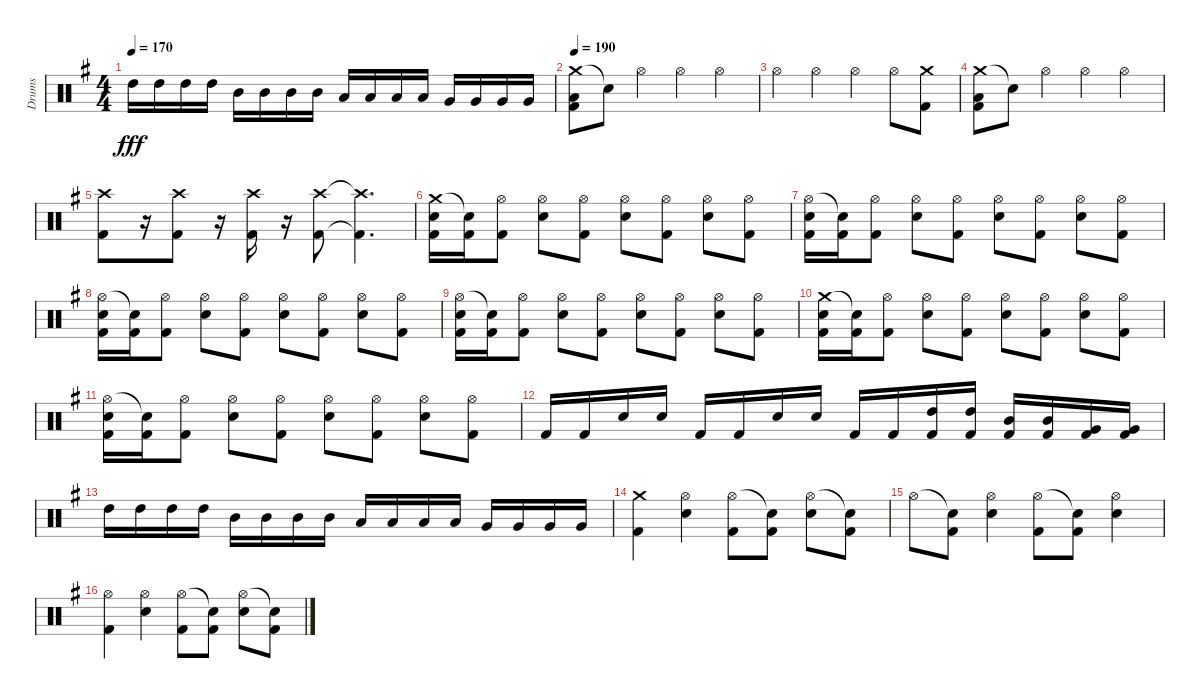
\track ("Drums" "Drums") {instrument percussion}
\staff {score}
\articulation defaults
\ts (4 4)
\tempo 170
\clef neutral
\ks eminor "High Tom (hit)".16{dy fff} "High Tom (hit)".16 "High Tom (hit)".16 "High Tom (hit)".16 "Mid Tom (hit)".16 "Mid Tom (hit)".16 "Mid Tom (hit)".16 "Mid Tom (hit)".16 "Low Tom (hit)".16 "Low Tom (hit)".16 "Low Tom (hit)".16 "Low Tom (hit)".16 "Very Low Tom (hit)".16 "Very Low Tom (hit)".16 "Very Low Tom (hit)".16 "Very Low Tom (hit)".16
|
\tempo 190
("Crash medium (hit)" "Low Floor Tom (hit)" "Kick (hit) 2").8 "Snare (hit)"{t}.8 "Hi-Hat (open)".4 "Hi-Hat (open)".4 "Hi-Hat (open)".4 |
"Hi-Hat (open)".4 "Hi-Hat (open)".4 "Hi-Hat (open)".4 "Hi-Hat (open)".8 ("Crash medium (hit)" "Kick (hit) 2").8 |
("Crash medium (hit)" "Low Floor Tom (hit)" "Kick (hit) 2").8 "Snare (hit)"{t}.8 "Hi-Hat (open)".4 "Hi-Hat (open)".4 "Hi-Hat (open)".4 |
("Crash high (hit)" "Kick (hit) 2").8{volume 16} r.16{volume 0} ("Crash high (hit)" "Kick (hit) 2").8{volume 16} r.16{volume 0} ("Crash high (hit)" "Kick (hit) 2").16{volume 16} r.16{volume 0} ("Crash high (hit)" "Kick (hit) 2").8{volume 16} ("Crash high (hit)"{t} "Kick (hit) 2"{t}).4{d volume 0} |
("Crash medium (hit)" "Electric Snare (hit)" "Kick (hit) 2").16{volume 16} ("Snare (hit)"{t} "Kick (hit) 2").16 ("Hi-Hat (open)" "Kick (hit) 2").8 ("Hi-Hat (open)" "Electric Snare (hit)").8 ("Hi-Hat (open)" "Kick (hit) 2").8 ("Hi-Hat (open)" "Electric Snare (hit)").8 ("Hi-Hat (open)" "Kick (hit) 2").8 ("Hi-Hat (open)" "Electric Snare (hit)").8 ("Hi-Hat (open)" "Kick (hit) 2").8 |
("Hi-Hat (open)" "Electric Snare (hit)" "Kick (hit) 2").16 ("Snare (hit)"{t} "Kick (hit) 2").16 ("Hi-Hat (open)" "Kick (hit) 2").8 ("Hi-Hat (open)" "Electric Snare (hit)").8 ("Hi-Hat (open)" "Kick (hit) 2").8 ("Hi-Hat (open)" "Electric Snare (hit)").8 ("Hi-Hat (open)" "Kick (hit) 2").8 ("Hi-Hat (open)" "Electric Snare (hit)").8 ("Hi-Hat (open)" "Kick (hit) 2").8 |
("Hi-Hat (open)" "Electric Snare (hit)" "Kick (hit) 2").16 ("Snare (hit)"{t} "Kick (hit) 2").16 ("Hi-Hat (open)" "Kick (hit) 2").8 ("Hi-Hat (open)" "Electric Snare (hit)").8 ("Hi-Hat (open)" "Kick (hit) 2").8 ("Hi-Hat (open)" "Electric Snare (hit)").8 ("Hi-Hat (open)" "Kick (hit) 2").8 ("Hi-Hat (open)" "Electric Snare (hit)").8 ("Hi-Hat (open)" "Kick (hit) 2").8 |
("Hi-Hat (open)" "Electric Snare (hit)" "Kick (hit) 2").16 ("Snare (hit)"{t} "Kick (hit) 2").16 ("Hi-Hat (open)" "Kick (hit) 2").8 ("Hi-Hat (open)" "Electric Snare (hit)").8 ("Hi-Hat (open)" "Kick (hit) 2").8 ("Hi-Hat (open)" "Electric Snare (hit)").8 ("Hi-Hat (open)" "Kick (hit) 2").8 ("Hi-Hat (open)" "Electric Snare (hit)").8 ("Hi-Hat (open)" "Kick (hit) 2").8 |
("Crash medium (hit)" "Electric Snare (hit)" "Kick (hit) 2").16 ("Snare (hit)"{t} "Kick (hit) 2").16 ("Hi-Hat (open)" "Kick (hit) 2").8 ("Hi-Hat (open)" "Electric Snare (hit)").8 ("Hi-Hat (open)" "Kick (hit) 2").8 ("Hi-Hat (open)" "Electric Snare (hit)").8 ("Hi-Hat (open)" "Kick (hit) 2").8 ("Hi-Hat (open)" "Electric Snare (hit)").8 ("Hi-Hat (open)" "Kick (hit) 2").8 |
("Hi-Hat (open)" "Electric Snare (hit)" "Kick (hit) 2").16 ("Snare (hit)"{t} "Kick (hit) 2").16 ("Hi-Hat (open)" "Kick (hit) 2").8 ("Hi-Hat (open)" "Electric Snare (hit)").8 ("Hi-Hat (open)" "Kick (hit) 2").8 ("Hi-Hat (open)" "Electric Snare (hit)").8 ("Hi-Hat (open)" "Kick (hit) 2").8 ("Hi-Hat (open)" "Electric Snare (hit)").8 ("Hi-Hat (open)" "Kick (hit) 2").8 |
"Kick (hit) 2".16 "Kick (hit) 2".16 "Electric Snare (hit)".16 "Electric Snare (hit)".16 "Kick (hit) 2".16 "Kick (hit) 2".16 "Electric Snare (hit)".16 "Electric Snare (hit)".16 "Kick (hit) 2".16 "Kick (hit) 2".16 ("High Tom (hit)" "Kick (hit) 2").16 ("High Tom (hit)" "Kick (hit) 2").16 ("Mid Tom (hit)" "Kick (hit) 2").16 ("Mid Tom (hit)" "Kick (hit) 2").16 ("Very Low Tom (hit)" "Kick (hit) 2").16 ("Very Low Tom (hit)" "Kick (hit) 2").16 |
"High Tom (hit)".16 "High Tom (hit)".16 "High Tom (hit)".16 "High Tom (hit)".16 "Mid Tom (hit)".16 "Mid Tom (hit)".16 "Mid Tom (hit)".16 "Mid Tom (hit)".16 "Low Tom (hit)".16 "Low Tom (hit)".16 "Low Tom (hit)".16 "Low Tom (hit)".16 "Very Low Tom (hit)".16 "Very Low Tom (hit)".16 "Very Low Tom (hit)".16 "Very Low Tom (hit)".16 |
("Crash medium (hit)" "Kick (hit) 2").4 ("Hi-Hat (open)" "Electric Snare (hit)").4 ("Hi-Hat (open)" "Kick (hit) 2").8 ("Snare (hit)"{t} "Kick (hit) 2").8 ("Hi-Hat (open)" "Electric Snare (hit)").8 ("Snare (hit)"{t} "Kick (hit) 2").8 |
"Hi-Hat (open)".8 ("Snare (hit)"{t} "Kick (hit) 2").8 ("Hi-Hat (open)" "Electric Snare (hit)").4 ("Hi-Hat (open)" "Kick (hit) 2").8 ("Snare (hit)"{t} "Kick (hit) 2").8 ("Hi-Hat (open)" "Electric Snare (hit)").4 |
("Hi-Hat (open)" "Kick (hit) 2").4 ("Hi-Hat (open)" "Electric Snare (hit)").4 ("Hi-Hat (open)" "Kick (hit) 2").8 ("Snare (hit)"{t} "Kick (hit) 2").8 ("Hi-Hat (open)" "Electric Snare (hit)").8 ("Snare (hit)"{t} "Kick (hit) 2").8
